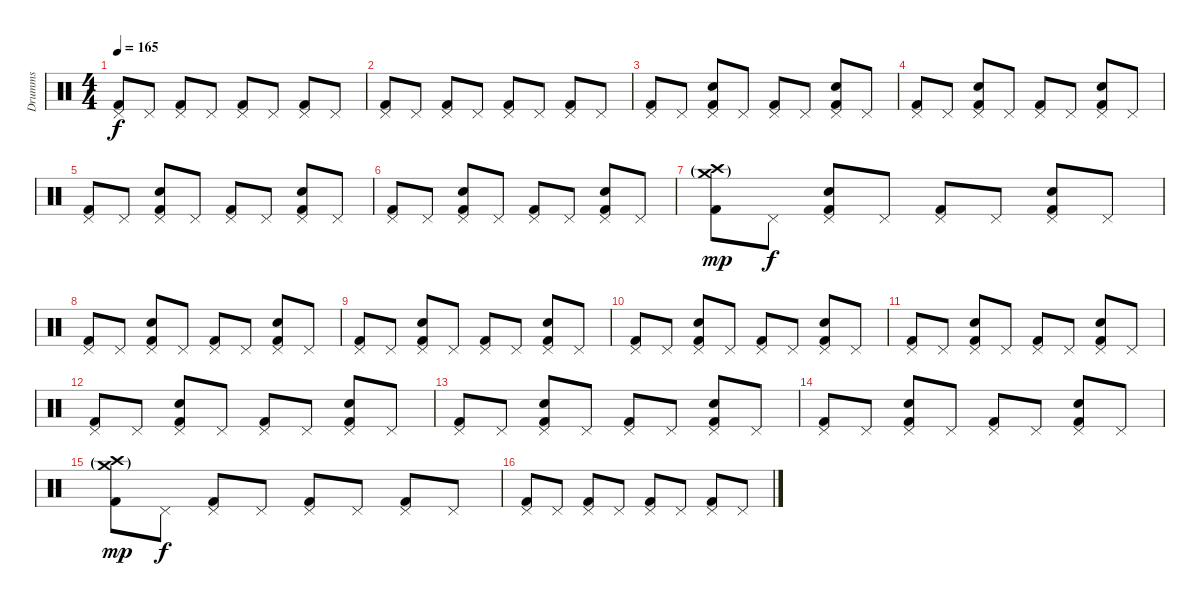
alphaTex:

\track ("Drumms" "Drumms") {instrument percussion}
\staff {score}
\articulation defaults
\ts (4 4)
\tempo 165
\clef neutral
\ks c
("Pedal Hi-Hat (hit)" "Kick (hit) 2").8{dy f} "Pedal Hi-Hat (hit)".8 ("Pedal Hi-Hat (hit)" "Kick (hit) 2").8 "Pedal Hi-Hat (hit)".8 ("Pedal Hi-Hat (hit)" "Kick (hit) 2").8 "Pedal Hi-Hat (hit)".8 ("Pedal Hi-Hat (hit)" "Kick (hit) 2").8 "Pedal Hi-Hat (hit)".8 |
("Pedal Hi-Hat (hit)" "Kick (hit) 2").8 "Pedal Hi-Hat (hit)".8 ("Pedal Hi-Hat (hit)" "Kick (hit) 2").8 "Pedal Hi-Hat (hit)".8 ("Pedal Hi-Hat (hit)" "Kick (hit) 2").8 "Pedal Hi-Hat (hit)".8 ("Pedal Hi-Hat (hit)" "Kick (hit) 2").8 "Pedal Hi-Hat (hit)".8 |
("Pedal Hi-Hat (hit)" "Kick (hit) 2").8 "Pedal Hi-Hat (hit)".8 ("Pedal Hi-Hat (hit)" "Electric Snare (hit)" "Kick (hit) 2").8 "Pedal Hi-Hat (hit)".8 ("Pedal Hi-Hat (hit)" "Kick (hit) 2").8 "Pedal Hi-Hat (hit)".8 ("Pedal Hi-Hat (hit)" "Electric Snare (hit)" "Kick (hit) 2").8 "Pedal Hi-Hat (hit)".8 |
("Pedal Hi-Hat (hit)" "Kick (hit) 2").8 "Pedal Hi-Hat (hit)".8 ("Pedal Hi-Hat (hit)" "Electric Snare (hit)" "Kick (hit) 2").8 "Pedal Hi-Hat (hit)".8 ("Pedal Hi-Hat (hit)" "Kick (hit) 2").8 "Pedal Hi-Hat (hit)".8 ("Pedal Hi-Hat (hit)" "Electric Snare (hit)" "Kick (hit) 2").8 "Pedal Hi-Hat (hit)".8 |
("Pedal Hi-Hat (hit)" "Kick (hit) 2").8 "Pedal Hi-Hat (hit)".8 ("Pedal Hi-Hat (hit)" "Electric Snare (hit)" "Kick (hit) 2").8 "Pedal Hi-Hat (hit)".8 ("Pedal Hi-Hat (hit)" "Kick (hit) 2").8 "Pedal Hi-Hat (hit)".8 ("Pedal Hi-Hat (hit)" "Electric Snare (hit)" "Kick (hit) 2").8 "Pedal Hi-Hat (hit)".8 |
("Pedal Hi-Hat (hit)" "Kick (hit) 2").8 "Pedal Hi-Hat (hit)".8 ("Pedal Hi-Hat (hit)" "Electric Snare (hit)" "Kick (hit) 2").8 "Pedal Hi-Hat (hit)".8 ("Pedal Hi-Hat (hit)" "Kick (hit) 2").8 "Pedal Hi-Hat (hit)".8 ("Pedal Hi-Hat (hit)" "Electric Snare (hit)" "Kick (hit) 2").8 "Pedal Hi-Hat (hit)".8 |
("Crash medium (hit)"{g} "Crash high (hit)"{g} "Kick (hit) 2").8{dy mp} "Pedal Hi-Hat (hit)".8{dy f} ("Pedal Hi-Hat (hit)" "Electric Snare (hit)" "Kick (hit) 2").8 "Pedal Hi-Hat (hit)".8 ("Pedal Hi-Hat (hit)" "Kick (hit) 2").8 "Pedal Hi-Hat (hit)".8 ("Pedal Hi-Hat (hit)" "Electric Snare (hit)" "Kick (hit) 2").8 "Pedal Hi-Hat (hit)".8 |
("Pedal Hi-Hat (hit)" "Kick (hit) 2").8 "Pedal Hi-Hat (hit)".8 ("Pedal Hi-Hat (hit)" "Electric Snare (hit)" "Kick (hit) 2").8 "Pedal Hi-Hat (hit)".8 ("Pedal Hi-Hat (hit)" "Kick (hit) 2").8 "Pedal Hi-Hat (hit)".8 ("Pedal Hi-Hat (hit)" "Electric Snare (hit)" "Kick (hit) 2").8 "Pedal Hi-Hat (hit)".8 |
("Pedal Hi-Hat (hit)" "Kick (hit) 2").8 "Pedal Hi-Hat (hit)".8 ("Pedal Hi-Hat (hit)" "Electric Snare (hit)" "Kick (hit) 2").8 "Pedal Hi-Hat (hit)".8 ("Pedal Hi-Hat (hit)" "Kick (hit) 2").8 "Pedal Hi-Hat (hit)".8 ("Pedal Hi-Hat (hit)" "Electric Snare (hit)" "Kick (hit) 2").8 "Pedal Hi-Hat (hit)".8 |
("Pedal Hi-Hat (hit)" "Kick (hit) 2").8 "Pedal Hi-Hat (hit)".8 ("Pedal Hi-Hat (hit)" "Electric Snare (hit)" "Kick (hit) 2").8 "Pedal Hi-Hat (hit)".8 ("Pedal Hi-Hat (hit)" "Kick (hit) 2").8 "Pedal Hi-Hat (hit)".8 ("Pedal Hi-Hat (hit)" "Electric Snare (hit)" "Kick (hit) 2").8 "Pedal Hi-Hat (hit)".8 |
("Pedal Hi-Hat (hit)" "Kick (hit) 2").8 "Pedal Hi-Hat (hit)".8 ("Pedal Hi-Hat (hit)" "Electric Snare (hit)" "Kick (hit) 2").8 "Pedal Hi-Hat (hit)".8 ("Pedal Hi-Hat (hit)" "Kick (hit) 2").8 "Pedal Hi-Hat (hit)".8 ("Pedal Hi-Hat (hit)" "Electric Snare (hit)" "Kick (hit) 2").8 "Pedal Hi-Hat (hit)".8 |
("Pedal Hi-Hat (hit)" "Kick (hit) 2").8 "Pedal Hi-Hat (hit)".8 ("Pedal Hi-Hat (hit)" "Electric Snare (hit)" "Kick (hit) 2").8 "Pedal Hi-Hat (hit)".8 ("Pedal Hi-Hat (hit)" "Kick (hit) 2").8 "Pedal Hi-Hat (hit)".8 ("Pedal Hi-Hat (hit)" "Electric Snare (hit)" "Kick (hit) 2").8 "Pedal Hi-Hat (hit)".8 |
("Pedal Hi-Hat (hit)" "Kick (hit) 2").8 "Pedal Hi-Hat (hit)".8 ("Pedal Hi-Hat (hit)" "Electric Snare (hit)" "Kick (hit) 2").8 "Pedal Hi-Hat (hit)".8 ("Pedal Hi-Hat (hit)" "Kick (hit) 2").8 "Pedal Hi-Hat (hit)".8 ("Pedal Hi-Hat (hit)" "Electric Snare (hit)" "Kick (hit) 2").8 "Pedal Hi-Hat (hit)".8 |
("Pedal Hi-Hat (hit)" "Kick (hit) 2").8 "Pedal Hi-Hat (hit)".8 ("Pedal Hi-Hat (hit)" "Electric Snare (hit)" "Kick (hit) 2").8 "Pedal Hi-Hat (hit)".8 ("Pedal Hi-Hat (hit)" "Kick (hit) 2").8 "Pedal Hi-Hat (hit)".8 ("Pedal Hi-Hat (hit)" "Electric Snare (hit)" "Kick (hit) 2").8 "Pedal Hi-Hat (hit)".8 |
("Crash medium (hit)"{g} "Crash high (hit)"{g} "Kick (hit) 2").8{dy mp} "Pedal Hi-Hat (hit)".8{dy f} ("Pedal Hi-Hat (hit)" "Kick (hit) 2").8 "Pedal Hi-Hat (hit)".8 ("Pedal Hi-Hat (hit)" "Kick (hit) 2").8 "Pedal Hi-Hat (hit)".8 ("Pedal Hi-Hat (hit)" "Kick (hit) 2").8 "Pedal Hi-Hat (hit)".8 |
("Pedal Hi-Hat (hit)" "Kick (hit) 2").8 "Pedal Hi-Hat (hit)".8 ("Pedal Hi-Hat (hit)" "Kick (hit) 2").8 "Pedal Hi-Hat (hit)".8 ("Pedal Hi-Hat (hit)" "Kick (hit) 2").8 "Pedal Hi-Hat (hit)".8 ("Pedal Hi-Hat (hit)" "Kick (hit) 2").8 "Pedal Hi-Hat (hit)".8
